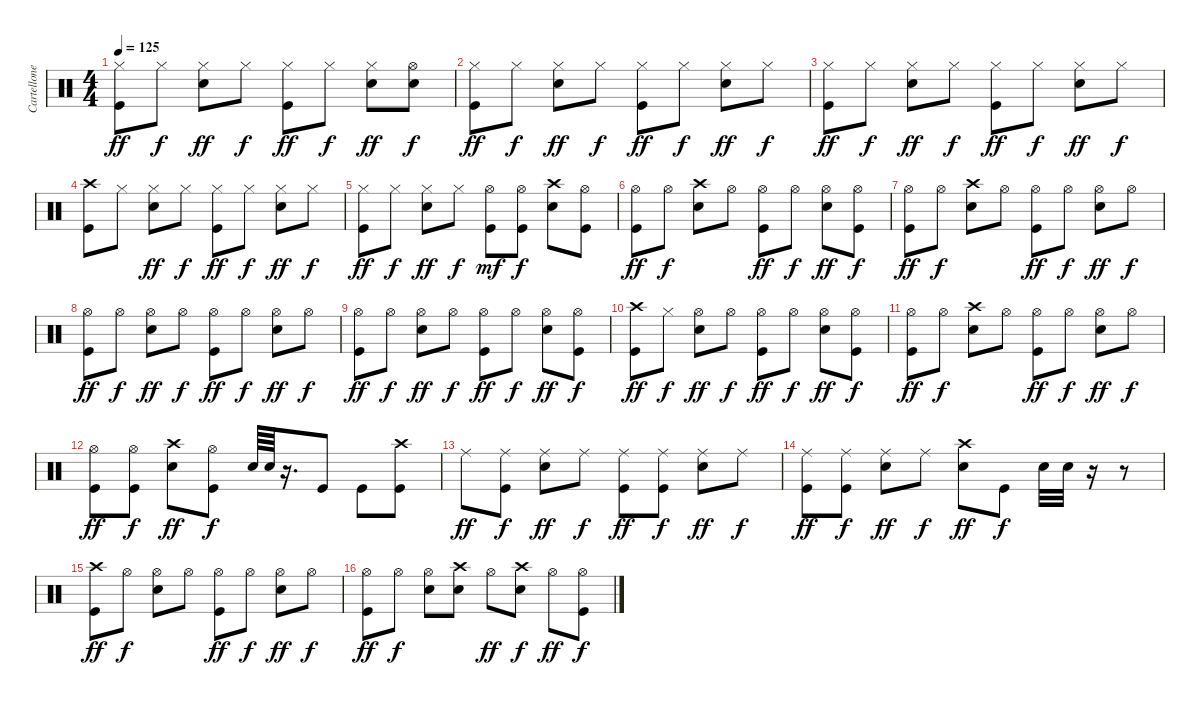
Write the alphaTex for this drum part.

\track ("Cartellone" "Cartellone") {instrument percussion}
\staff {score}
\articulation defaults
\ts (4 4)
\tempo 125
\clef neutral
\ks c
("Hi-Hat (closed)" "Kick (hit)").8{dy ff} "Hi-Hat (closed)".8{dy f} ("Hi-Hat (closed)" "Snare (hit) 2").8{dy ff} "Hi-Hat (closed)".8{dy f} ("Hi-Hat (closed)" "Kick (hit)").8{dy ff} "Hi-Hat (closed)".8{dy f} ("Hi-Hat (closed)" "Snare (hit) 2").8{dy ff} ("Hi-Hat (open)" "Snare (hit) 2").8{dy f} |
("Hi-Hat (closed)" "Kick (hit)").8{dy ff} "Hi-Hat (closed)".8{dy f} ("Hi-Hat (closed)" "Snare (hit) 2").8{dy ff} "Hi-Hat (closed)".8{dy f} ("Hi-Hat (closed)" "Kick (hit)").8{dy ff} "Hi-Hat (closed)".8{dy f} ("Hi-Hat (closed)" "Snare (hit) 2").8{dy ff} "Hi-Hat (closed)".8{dy f} |
("Hi-Hat (closed)" "Kick (hit)").8{dy ff} "Hi-Hat (closed)".8{dy f} ("Hi-Hat (closed)" "Snare (hit) 2").8{dy ff} "Hi-Hat (closed)".8{dy f} ("Hi-Hat (closed)" "Kick (hit)").8{dy ff} "Hi-Hat (closed)".8{dy f} ("Hi-Hat (closed)" "Snare (hit) 2").8{dy ff} "Hi-Hat (closed)".8{dy f} |
("Crash high (hit)" "Kick (hit)").8 "Hi-Hat (closed)".8 ("Hi-Hat (closed)" "Snare (hit) 2").8{dy ff} "Hi-Hat (closed)".8{dy f} ("Hi-Hat (closed)" "Kick (hit)").8{dy ff} "Hi-Hat (closed)".8{dy f} ("Hi-Hat (closed)" "Snare (hit) 2").8{dy ff} "Hi-Hat (closed)".8{dy f} |
("Hi-Hat (closed)" "Kick (hit)").8{dy ff} "Hi-Hat (closed)".8{dy f} ("Hi-Hat (closed)" "Snare (hit) 2").8{dy ff} "Hi-Hat (closed)".8{dy f} ("Hi-Hat (open)" "Kick (hit)").8{dy mf} ("Hi-Hat (open)" "Kick (hit)").8{dy f} ("Crash high (hit)" "Snare (hit) 2").8 ("Hi-Hat (open)" "Kick (hit)").8 |
("Hi-Hat (open)" "Kick (hit)").8{dy ff} "Hi-Hat (open)".8{dy f} ("Crash high (hit)" "Snare (hit) 2").8 "Hi-Hat (open)".8 ("Hi-Hat (open)" "Kick (hit)").8{dy ff} "Hi-Hat (open)".8{dy f} ("Hi-Hat (open)" "Snare (hit) 2").8{dy ff} ("Hi-Hat (open)" "Kick (hit)").8{dy f} |
("Hi-Hat (open)" "Kick (hit)").8{dy ff} "Hi-Hat (open)".8{dy f} ("Crash high (hit)" "Snare (hit) 2").8 "Hi-Hat (open)".8 ("Hi-Hat (open)" "Kick (hit)").8{dy ff} "Hi-Hat (open)".8{dy f} ("Hi-Hat (open)" "Snare (hit) 2").8{dy ff} "Hi-Hat (open)".8{dy f} |
("Hi-Hat (open)" "Kick (hit)").8{dy ff} "Hi-Hat (open)".8{dy f} ("Hi-Hat (open)" "Snare (hit) 2").8{dy ff} "Hi-Hat (open)".8{dy f} ("Hi-Hat (open)" "Kick (hit)").8{dy ff} "Hi-Hat (open)".8{dy f} ("Hi-Hat (open)" "Snare (hit) 2").8{dy ff} "Hi-Hat (open)".8{dy f} |
("Hi-Hat (open)" "Kick (hit)").8{dy ff} "Hi-Hat (open)".8{dy f} ("Hi-Hat (open)" "Snare (hit) 2").8{dy ff} "Hi-Hat (open)".8{dy f} ("Hi-Hat (open)" "Kick (hit)").8{dy ff} "Hi-Hat (open)".8{dy f} ("Hi-Hat (open)" "Snare (hit) 2").8{dy ff} ("Hi-Hat (open)" "Kick (hit)").8{dy f} |
("Crash high (hit)" "Kick (hit)").8{dy ff} "Hi-Hat (closed)".8{dy f} ("Hi-Hat (open)" "Snare (hit) 2").8{dy ff} "Hi-Hat (open)".8{dy f} ("Hi-Hat (open)" "Kick (hit)").8{dy ff} "Hi-Hat (open)".8{dy f} ("Hi-Hat (open)" "Snare (hit) 2").8{dy ff} ("Hi-Hat (open)" "Kick (hit)").8{dy f} |
("Hi-Hat (open)" "Kick (hit)").8{dy ff} "Hi-Hat (open)".8{dy f} ("Crash high (hit)" "Snare (hit) 2").8 "Hi-Hat (open)".8 ("Hi-Hat (open)" "Kick (hit)").8{dy ff} "Hi-Hat (open)".8{dy f} ("Hi-Hat (open)" "Snare (hit) 2").8{dy ff} "Hi-Hat (open)".8{dy f} |
("Hi-Hat (open)" "Kick (hit)").8{dy ff} ("Hi-Hat (open)" "Kick (hit)").8{dy f} ("Crash high (hit)" "Snare (hit) 2").8{dy ff} ("Hi-Hat (open)" "Kick (hit)").8{dy f} "Snare (hit) 2".64 "Snare (hit) 2".64 r.16{d} "Kick (hit)".8 "Kick (hit)".8 ("Crash high (hit)" "Kick (hit)").8 |
"Ride (middle)".8{dy ff} ("Ride (middle)" "Kick (hit)").8{dy f} ("Ride (middle)" "Snare (hit) 2").8{dy ff} "Ride (middle)".8{dy f} ("Ride (middle)" "Kick (hit)").8{dy ff} ("Ride (middle)" "Kick (hit)").8{dy f} ("Ride (middle)" "Snare (hit) 2").8{dy ff} "Ride (middle)".8{dy f} |
("Ride (middle)" "Kick (hit)").8{dy ff} ("Ride (middle)" "Kick (hit)").8{dy f} ("Ride (middle)" "Snare (hit) 2").8{dy ff} "Ride (middle)".8{dy f} ("Crash high (hit)" "Snare (hit) 2").8{dy ff} "Kick (hit)".8{dy f} "Snare (hit) 2".32 "Snare (hit) 2".32 r.16 r.8 |
("Crash high (hit)" "Kick (hit)").8{dy ff} "Hi-Hat (open)".8{dy f} ("Hi-Hat (open)" "Snare (hit) 2").8 "Hi-Hat (open)".8 ("Hi-Hat (open)" "Kick (hit)").8{dy ff} "Hi-Hat (open)".8{dy f} ("Hi-Hat (open)" "Snare (hit) 2").8{dy ff} "Hi-Hat (open)".8{dy f} |
("Hi-Hat (open)" "Kick (hit)").8{dy ff} "Hi-Hat (open)".8{dy f} ("Hi-Hat (open)" "Snare (hit) 2").8 ("Crash high (hit)" "Snare (hit) 2").8 "Hi-Hat (open)".8{dy ff} ("Crash high (hit)" "Snare (hit) 2").8{dy f} "Hi-Hat (open)".8{dy ff} ("Hi-Hat (open)" "Kick (hit)").8{dy f}
